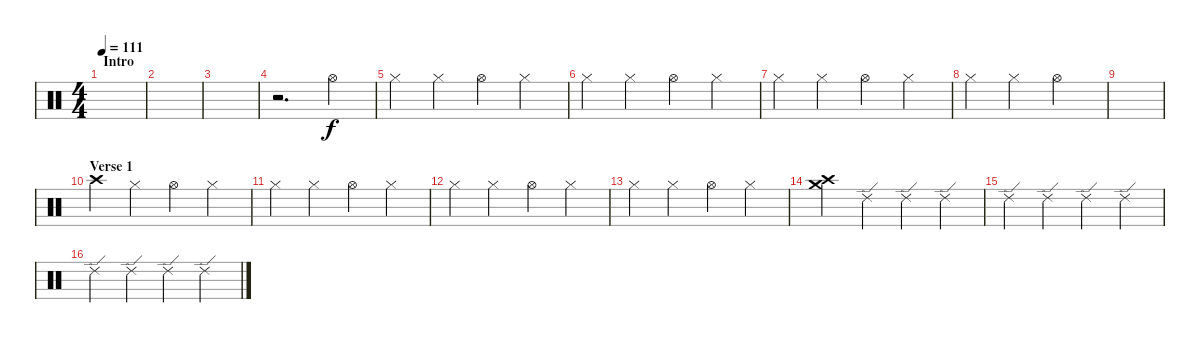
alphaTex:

\track "" {instrument percussion}
\staff {score}
\articulation defaults
\ts (4 4)
\section ("" "Intro")
\tempo 111
\clef neutral
\ks c
|
|
|
r.2{d} "Hi-Hat (open)".4 |
"Hi-Hat (closed)".4 "Hi-Hat (closed)".4 "Hi-Hat (open)".4 "Hi-Hat (closed)".4 |
"Hi-Hat (closed)".4 "Hi-Hat (closed)".4 "Hi-Hat (open)".4 "Hi-Hat (closed)".4 |
"Hi-Hat (closed)".4 "Hi-Hat (closed)".4 "Hi-Hat (open)".4 "Hi-Hat (closed)".4 |
"Hi-Hat (closed)".4 "Hi-Hat (closed)".4 "Hi-Hat (open)".2 |
|
\section ("" "Verse 1")
"Crash high (hit)".4 "Hi-Hat (closed)".4 "Hi-Hat (open)".4 "Hi-Hat (closed)".4 |
"Hi-Hat (closed)".4 "Hi-Hat (closed)".4 "Hi-Hat (open)".4 "Hi-Hat (closed)".4 |
"Hi-Hat (closed)".4 "Hi-Hat (closed)".4 "Hi-Hat (open)".4 "Hi-Hat (closed)".4 |
"Hi-Hat (closed)".4 "Hi-Hat (closed)".4 "Hi-Hat (open)".4 "Hi-Hat (closed)".4 |
("Crash medium (hit)" "Crash high (hit)").4 "Ride (edge) 2".4 "Ride (edge) 2".4 "Ride (edge) 2".4 |
"Ride (edge) 2".4 "Ride (edge) 2".4 "Ride (edge) 2".4 "Ride (edge) 2".4 |
"Ride (edge) 2".4 "Ride (edge) 2".4 "Ride (edge) 2".4 "Ride (edge) 2".4
